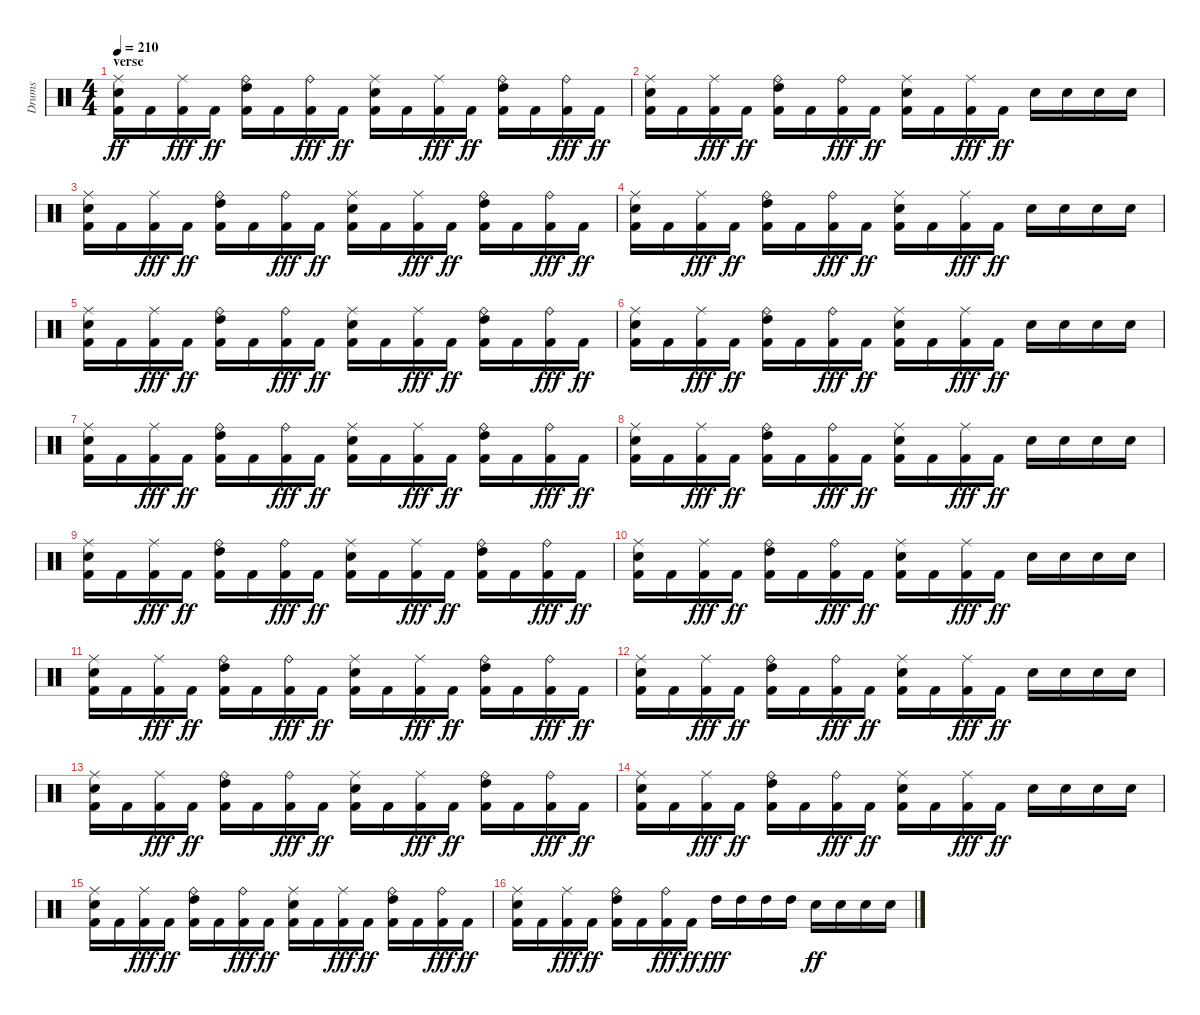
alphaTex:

\track ("Drums" "Drums") {instrument percussion}
\staff {score}
\articulation defaults
\ts (4 4)
\section ("" "verse")
\tempo 210
\clef neutral
\ks c
("Kick (hit) 2" "Ride (middle)" "Electric Snare (hit)").16{dy ff} "Kick (hit) 2".16 ("Kick (hit) 2" "Ride (middle)").16{dy fff} "Kick (hit) 2".16{dy ff} ("Kick (hit) 2" "Ride (bell)" "High Tom (hit)").16 "Kick (hit) 2".16 ("Kick (hit) 2" "Ride (bell)").16{dy fff} "Kick (hit) 2".16{dy ff} ("Kick (hit) 2" "Ride (middle)" "Electric Snare (hit)").16 "Kick (hit) 2".16 ("Kick (hit) 2" "Ride (middle)").16{dy fff} "Kick (hit) 2".16{dy ff} ("Kick (hit) 2" "Ride (bell)" "High Tom (hit)").16 "Kick (hit) 2".16 ("Kick (hit) 2" "Ride (bell)").16{dy fff} "Kick (hit) 2".16{dy ff} |
("Kick (hit) 2" "Ride (middle)" "Electric Snare (hit)").16 "Kick (hit) 2".16 ("Kick (hit) 2" "Ride (middle)").16{dy fff} "Kick (hit) 2".16{dy ff} ("Kick (hit) 2" "Ride (bell)" "High Tom (hit)").16 "Kick (hit) 2".16 ("Kick (hit) 2" "Ride (bell)").16{dy fff} "Kick (hit) 2".16{dy ff} ("Kick (hit) 2" "Ride (middle)" "Electric Snare (hit)").16 "Kick (hit) 2".16 ("Kick (hit) 2" "Ride (middle)").16{dy fff} "Kick (hit) 2".16{dy ff} "Electric Snare (hit)".16 "Electric Snare (hit)".16 "Electric Snare (hit)".16 "Electric Snare (hit)".16 |
("Kick (hit) 2" "Ride (middle)" "Electric Snare (hit)").16 "Kick (hit) 2".16 ("Kick (hit) 2" "Ride (middle)").16{dy fff} "Kick (hit) 2".16{dy ff} ("Kick (hit) 2" "Ride (bell)" "High Tom (hit)").16 "Kick (hit) 2".16 ("Kick (hit) 2" "Ride (bell)").16{dy fff} "Kick (hit) 2".16{dy ff} ("Kick (hit) 2" "Ride (middle)" "Electric Snare (hit)").16 "Kick (hit) 2".16 ("Kick (hit) 2" "Ride (middle)").16{dy fff} "Kick (hit) 2".16{dy ff} ("Kick (hit) 2" "Ride (bell)" "High Tom (hit)").16 "Kick (hit) 2".16 ("Kick (hit) 2" "Ride (bell)").16{dy fff} "Kick (hit) 2".16{dy ff} |
("Kick (hit) 2" "Ride (middle)" "Electric Snare (hit)").16 "Kick (hit) 2".16 ("Kick (hit) 2" "Ride (middle)").16{dy fff} "Kick (hit) 2".16{dy ff} ("Kick (hit) 2" "Ride (bell)" "High Tom (hit)").16 "Kick (hit) 2".16 ("Kick (hit) 2" "Ride (bell)").16{dy fff} "Kick (hit) 2".16{dy ff} ("Kick (hit) 2" "Ride (middle)" "Electric Snare (hit)").16 "Kick (hit) 2".16 ("Kick (hit) 2" "Ride (middle)").16{dy fff} "Kick (hit) 2".16{dy ff} "Electric Snare (hit)".16 "Electric Snare (hit)".16 "Electric Snare (hit)".16 "Electric Snare (hit)".16 |
("Kick (hit) 2" "Ride (middle)" "Electric Snare (hit)").16 "Kick (hit) 2".16 ("Kick (hit) 2" "Ride (middle)").16{dy fff} "Kick (hit) 2".16{dy ff} ("Kick (hit) 2" "Ride (bell)" "High Tom (hit)").16 "Kick (hit) 2".16 ("Kick (hit) 2" "Ride (bell)").16{dy fff} "Kick (hit) 2".16{dy ff} ("Kick (hit) 2" "Ride (middle)" "Electric Snare (hit)").16 "Kick (hit) 2".16 ("Kick (hit) 2" "Ride (middle)").16{dy fff} "Kick (hit) 2".16{dy ff} ("Kick (hit) 2" "Ride (bell)" "High Tom (hit)").16 "Kick (hit) 2".16 ("Kick (hit) 2" "Ride (bell)").16{dy fff} "Kick (hit) 2".16{dy ff} |
("Kick (hit) 2" "Ride (middle)" "Electric Snare (hit)").16 "Kick (hit) 2".16 ("Kick (hit) 2" "Ride (middle)").16{dy fff} "Kick (hit) 2".16{dy ff} ("Kick (hit) 2" "Ride (bell)" "High Tom (hit)").16 "Kick (hit) 2".16 ("Kick (hit) 2" "Ride (bell)").16{dy fff} "Kick (hit) 2".16{dy ff} ("Kick (hit) 2" "Ride (middle)" "Electric Snare (hit)").16 "Kick (hit) 2".16 ("Kick (hit) 2" "Ride (middle)").16{dy fff} "Kick (hit) 2".16{dy ff} "Electric Snare (hit)".16 "Electric Snare (hit)".16 "Electric Snare (hit)".16 "Electric Snare (hit)".16 |
("Kick (hit) 2" "Ride (middle)" "Electric Snare (hit)").16 "Kick (hit) 2".16 ("Kick (hit) 2" "Ride (middle)").16{dy fff} "Kick (hit) 2".16{dy ff} ("Kick (hit) 2" "Ride (bell)" "High Tom (hit)").16 "Kick (hit) 2".16 ("Kick (hit) 2" "Ride (bell)").16{dy fff} "Kick (hit) 2".16{dy ff} ("Kick (hit) 2" "Ride (middle)" "Electric Snare (hit)").16 "Kick (hit) 2".16 ("Kick (hit) 2" "Ride (middle)").16{dy fff} "Kick (hit) 2".16{dy ff} ("Kick (hit) 2" "Ride (bell)" "High Tom (hit)").16 "Kick (hit) 2".16 ("Kick (hit) 2" "Ride (bell)").16{dy fff} "Kick (hit) 2".16{dy ff} |
("Kick (hit) 2" "Ride (middle)" "Electric Snare (hit)").16 "Kick (hit) 2".16 ("Kick (hit) 2" "Ride (middle)").16{dy fff} "Kick (hit) 2".16{dy ff} ("Kick (hit) 2" "Ride (bell)" "High Tom (hit)").16 "Kick (hit) 2".16 ("Kick (hit) 2" "Ride (bell)").16{dy fff} "Kick (hit) 2".16{dy ff} ("Kick (hit) 2" "Ride (middle)" "Electric Snare (hit)").16 "Kick (hit) 2".16 ("Kick (hit) 2" "Ride (middle)").16{dy fff} "Kick (hit) 2".16{dy ff} "Electric Snare (hit)".16 "Electric Snare (hit)".16 "Electric Snare (hit)".16 "Electric Snare (hit)".16 |
("Kick (hit) 2" "Ride (middle)" "Electric Snare (hit)").16 "Kick (hit) 2".16 ("Kick (hit) 2" "Ride (middle)").16{dy fff} "Kick (hit) 2".16{dy ff} ("Kick (hit) 2" "Ride (bell)" "High Tom (hit)").16 "Kick (hit) 2".16 ("Kick (hit) 2" "Ride (bell)").16{dy fff} "Kick (hit) 2".16{dy ff} ("Kick (hit) 2" "Ride (middle)" "Electric Snare (hit)").16 "Kick (hit) 2".16 ("Kick (hit) 2" "Ride (middle)").16{dy fff} "Kick (hit) 2".16{dy ff} ("Kick (hit) 2" "Ride (bell)" "High Tom (hit)").16 "Kick (hit) 2".16 ("Kick (hit) 2" "Ride (bell)").16{dy fff} "Kick (hit) 2".16{dy ff} |
("Kick (hit) 2" "Ride (middle)" "Electric Snare (hit)").16 "Kick (hit) 2".16 ("Kick (hit) 2" "Ride (middle)").16{dy fff} "Kick (hit) 2".16{dy ff} ("Kick (hit) 2" "Ride (bell)" "High Tom (hit)").16 "Kick (hit) 2".16 ("Kick (hit) 2" "Ride (bell)").16{dy fff} "Kick (hit) 2".16{dy ff} ("Kick (hit) 2" "Ride (middle)" "Electric Snare (hit)").16 "Kick (hit) 2".16 ("Kick (hit) 2" "Ride (middle)").16{dy fff} "Kick (hit) 2".16{dy ff} "Electric Snare (hit)".16 "Electric Snare (hit)".16 "Electric Snare (hit)".16 "Electric Snare (hit)".16 |
("Kick (hit) 2" "Ride (middle)" "Electric Snare (hit)").16 "Kick (hit) 2".16 ("Kick (hit) 2" "Ride (middle)").16{dy fff} "Kick (hit) 2".16{dy ff} ("Kick (hit) 2" "Ride (bell)" "High Tom (hit)").16 "Kick (hit) 2".16 ("Kick (hit) 2" "Ride (bell)").16{dy fff} "Kick (hit) 2".16{dy ff} ("Kick (hit) 2" "Ride (middle)" "Electric Snare (hit)").16 "Kick (hit) 2".16 ("Kick (hit) 2" "Ride (middle)").16{dy fff} "Kick (hit) 2".16{dy ff} ("Kick (hit) 2" "Ride (bell)" "High Tom (hit)").16 "Kick (hit) 2".16 ("Kick (hit) 2" "Ride (bell)").16{dy fff} "Kick (hit) 2".16{dy ff} |
("Kick (hit) 2" "Ride (middle)" "Electric Snare (hit)").16 "Kick (hit) 2".16 ("Kick (hit) 2" "Ride (middle)").16{dy fff} "Kick (hit) 2".16{dy ff} ("Kick (hit) 2" "Ride (bell)" "High Tom (hit)").16 "Kick (hit) 2".16 ("Kick (hit) 2" "Ride (bell)").16{dy fff} "Kick (hit) 2".16{dy ff} ("Kick (hit) 2" "Ride (middle)" "Electric Snare (hit)").16 "Kick (hit) 2".16 ("Kick (hit) 2" "Ride (middle)").16{dy fff} "Kick (hit) 2".16{dy ff} "Electric Snare (hit)".16 "Electric Snare (hit)".16 "Electric Snare (hit)".16 "Electric Snare (hit)".16 |
("Kick (hit) 2" "Ride (middle)" "Electric Snare (hit)").16 "Kick (hit) 2".16 ("Kick (hit) 2" "Ride (middle)").16{dy fff} "Kick (hit) 2".16{dy ff} ("Kick (hit) 2" "Ride (bell)" "High Tom (hit)").16 "Kick (hit) 2".16 ("Kick (hit) 2" "Ride (bell)").16{dy fff} "Kick (hit) 2".16{dy ff} ("Kick (hit) 2" "Ride (middle)" "Electric Snare (hit)").16 "Kick (hit) 2".16 ("Kick (hit) 2" "Ride (middle)").16{dy fff} "Kick (hit) 2".16{dy ff} ("Kick (hit) 2" "Ride (bell)" "High Tom (hit)").16 "Kick (hit) 2".16 ("Kick (hit) 2" "Ride (bell)").16{dy fff} "Kick (hit) 2".16{dy ff} |
("Kick (hit) 2" "Ride (middle)" "Electric Snare (hit)").16 "Kick (hit) 2".16 ("Kick (hit) 2" "Ride (middle)").16{dy fff} "Kick (hit) 2".16{dy ff} ("Kick (hit) 2" "Ride (bell)" "High Tom (hit)").16 "Kick (hit) 2".16 ("Kick (hit) 2" "Ride (bell)").16{dy fff} "Kick (hit) 2".16{dy ff} ("Kick (hit) 2" "Ride (middle)" "Electric Snare (hit)").16 "Kick (hit) 2".16 ("Kick (hit) 2" "Ride (middle)").16{dy fff} "Kick (hit) 2".16{dy ff} "Electric Snare (hit)".16 "Electric Snare (hit)".16 "Electric Snare (hit)".16 "Electric Snare (hit)".16 |
("Kick (hit) 2" "Ride (middle)" "Electric Snare (hit)").16 "Kick (hit) 2".16 ("Kick (hit) 2" "Ride (middle)").16{dy fff} "Kick (hit) 2".16{dy ff} ("Kick (hit) 2" "Ride (bell)" "High Tom (hit)").16 "Kick (hit) 2".16 ("Kick (hit) 2" "Ride (bell)").16{dy fff} "Kick (hit) 2".16{dy ff} ("Kick (hit) 2" "Ride (middle)" "Electric Snare (hit)").16 "Kick (hit) 2".16 ("Kick (hit) 2" "Ride (middle)").16{dy fff} "Kick (hit) 2".16{dy ff} ("Kick (hit) 2" "Ride (bell)" "High Tom (hit)").16 "Kick (hit) 2".16 ("Kick (hit) 2" "Ride (bell)").16{dy fff} "Kick (hit) 2".16{dy ff} |
("Kick (hit) 2" "Ride (middle)" "Electric Snare (hit)").16 "Kick (hit) 2".16 ("Kick (hit) 2" "Ride (middle)").16{dy fff} "Kick (hit) 2".16{dy ff} ("Kick (hit) 2" "Ride (bell)" "High Tom (hit)").16 "Kick (hit) 2".16 ("Kick (hit) 2" "Ride (bell)").16{dy fff} "Kick (hit) 2".16{dy ff} "High Tom (hit)".16{dy fff} "High Tom (hit)".16 "High Tom (hit)".16 "High Tom (hit)".16 "Electric Snare (hit)".16{dy ff} "Electric Snare (hit)".16 "Electric Snare (hit)".16 "Electric Snare (hit)".16
